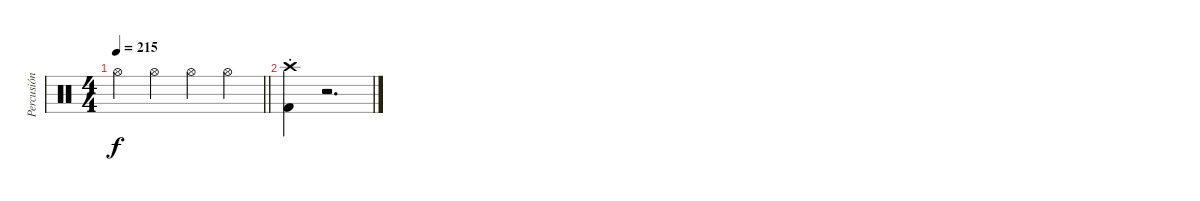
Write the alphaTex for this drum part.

\track ("Percusión" "Percusión") {instrument percussion}
\staff {score}
\articulation defaults
\ts (4 4)
\tempo 215
\clef neutral
\barLineRight lightlight
\ks c "Hi-Hat (open)".4{dy f} "Hi-Hat (open)".4 "Hi-Hat (open)".4 "Hi-Hat (open)".4
|
("Crash high (hit)"{st} "Kick (hit) 2").4 r.2{d}
